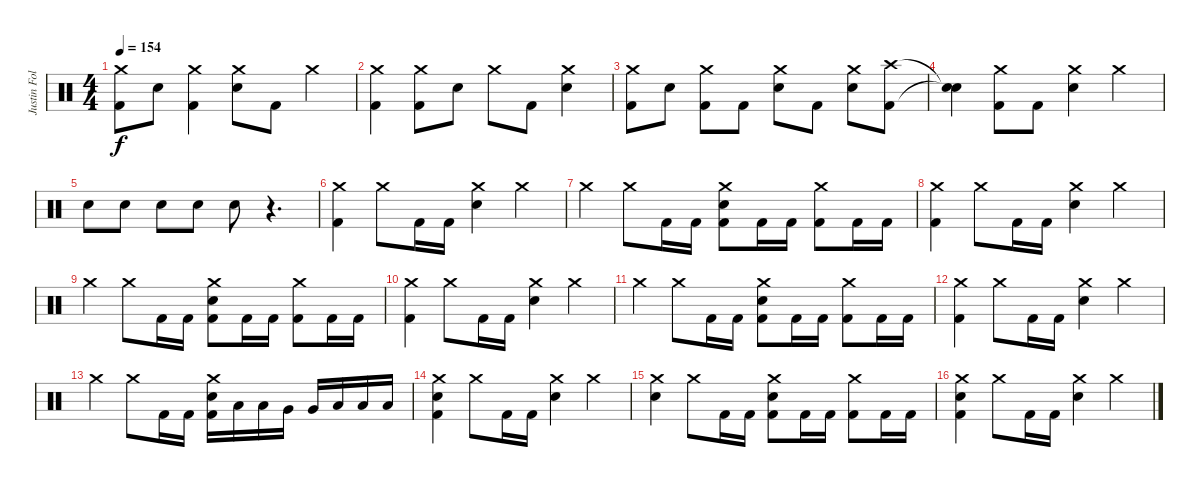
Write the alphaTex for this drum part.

\track ("Justin Foley" "Justin Fol") {instrument percussion}
\staff {score}
\articulation defaults
\ts (4 4)
\tempo 154
\clef neutral
\ks c
("Crash medium (hit)" "Kick (hit) 2").8{dy f} "Electric Snare (hit)".8 ("Crash medium (hit)" "Kick (hit) 2").4 ("Crash medium (hit)" "Electric Snare (hit)").8 "Kick (hit) 2".8 "Crash medium (hit)".4 |
("Crash medium (hit)" "Kick (hit) 2").4 ("Crash medium (hit)" "Kick (hit) 2").8 "Electric Snare (hit)".8 "Crash medium (hit)".8 "Kick (hit) 2".8 ("Crash medium (hit)" "Electric Snare (hit)").4 |
("Crash medium (hit)" "Kick (hit) 2").8 "Electric Snare (hit)".8 ("Crash medium (hit)" "Kick (hit) 2").8 "Kick (hit) 2".8 ("Crash medium (hit)" "Electric Snare (hit)").8 "Kick (hit) 2".8 ("Crash medium (hit)" "Electric Snare (hit)").8 ("Crash high (hit)" "Kick (hit) 2").8 |
("Snare (hit)"{t} "Snare (hit)"{t}).4 ("Crash medium (hit)" "Kick (hit) 2").8 "Kick (hit) 2".8 ("Crash medium (hit)" "Electric Snare (hit)").4 "Crash medium (hit)".4 |
"Electric Snare (hit)".8 "Electric Snare (hit)".8 "Electric Snare (hit)".8 "Electric Snare (hit)".8 "Electric Snare (hit)".8 r.4{d} |
("Crash medium (hit)" "Kick (hit) 2").4 "Crash medium (hit)".8 "Kick (hit) 2".16 "Kick (hit) 2".16 ("Crash medium (hit)" "Electric Snare (hit)").4 "Crash medium (hit)".4 |
"Crash medium (hit)".4 "Crash medium (hit)".8 "Kick (hit) 2".16 "Kick (hit) 2".16 ("Crash medium (hit)" "Electric Snare (hit)" "Kick (hit) 2").8 "Kick (hit) 2".16 "Kick (hit) 2".16 ("Crash medium (hit)" "Kick (hit) 2").8 "Kick (hit) 2".16 "Kick (hit) 2".16 |
("Crash medium (hit)" "Kick (hit) 2").4 "Crash medium (hit)".8 "Kick (hit) 2".16 "Kick (hit) 2".16 ("Crash medium (hit)" "Electric Snare (hit)").4 "Crash medium (hit)".4 |
"Crash medium (hit)".4 "Crash medium (hit)".8 "Kick (hit) 2".16 "Kick (hit) 2".16 ("Crash medium (hit)" "Electric Snare (hit)" "Kick (hit) 2").8 "Kick (hit) 2".16 "Kick (hit) 2".16 ("Crash medium (hit)" "Kick (hit) 2").8 "Kick (hit) 2".16 "Kick (hit) 2".16 |
("Crash medium (hit)" "Kick (hit) 2").4 "Crash medium (hit)".8 "Kick (hit) 2".16 "Kick (hit) 2".16 ("Crash medium (hit)" "Electric Snare (hit)").4 "Crash medium (hit)".4 |
"Crash medium (hit)".4 "Crash medium (hit)".8 "Kick (hit) 2".16 "Kick (hit) 2".16 ("Crash medium (hit)" "Electric Snare (hit)" "Kick (hit) 2").8 "Kick (hit) 2".16 "Kick (hit) 2".16 ("Crash medium (hit)" "Kick (hit) 2").8 "Kick (hit) 2".16 "Kick (hit) 2".16 |
("Crash medium (hit)" "Kick (hit) 2").4 "Crash medium (hit)".8 "Kick (hit) 2".16 "Kick (hit) 2".16 ("Crash medium (hit)" "Electric Snare (hit)").4 "Crash medium (hit)".4 |
"Crash medium (hit)".4 "Crash medium (hit)".8 "Kick (hit) 2".16 "Kick (hit) 2".16 ("Crash medium (hit)" "Electric Snare (hit)" "Kick (hit) 2").16 "Low Tom (hit)".16 "Low Tom (hit)".16 "Very Low Tom (hit)".16 "Very Low Tom (hit)".16 "Low Floor Tom (hit)".16 "Low Floor Tom (hit)".16 "Low Floor Tom (hit)".16 |
("Crash medium (hit)" "Electric Snare (hit)" "Kick (hit) 2").4 "Crash medium (hit)".8 "Kick (hit) 2".16 "Kick (hit) 2".16 ("Crash medium (hit)" "Electric Snare (hit)").4 "Crash medium (hit)".4 |
("Crash medium (hit)" "Electric Snare (hit)").4 "Crash medium (hit)".8 "Kick (hit) 2".16 "Kick (hit) 2".16 ("Crash medium (hit)" "Electric Snare (hit)" "Kick (hit) 2").8 "Kick (hit) 2".16 "Kick (hit) 2".16 ("Crash medium (hit)" "Kick (hit) 2").8 "Kick (hit) 2".16 "Kick (hit) 2".16 |
("Crash medium (hit)" "Electric Snare (hit)" "Kick (hit) 2").4 "Crash medium (hit)".8 "Kick (hit) 2".16 "Kick (hit) 2".16 ("Crash medium (hit)" "Electric Snare (hit)").4 "Crash medium (hit)".4
